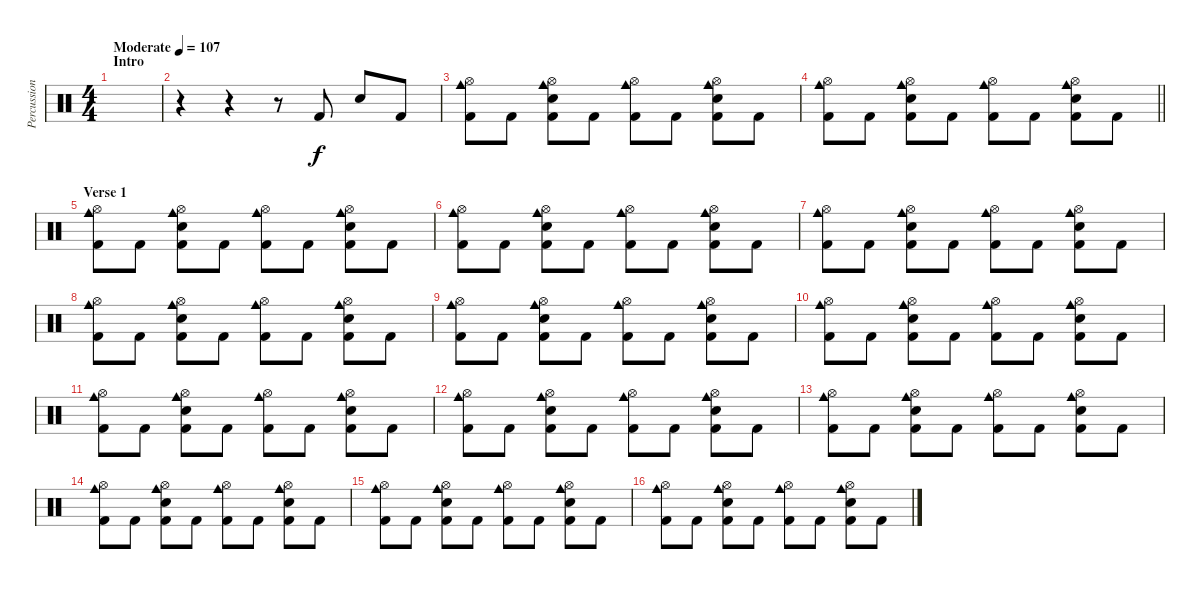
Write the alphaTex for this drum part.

\track ("Percussion" "Percussion") {instrument percussion}
\staff {score}
\articulation defaults
\ts (4 4)
\section ("" "Intro")
\tempo (107 "Moderate")
\clef neutral
\ks c
|
r.4 r.4 r.8 "Kick (hit) 2".8 "Snare (hit) 2".8 "Kick (hit) 2".8 |
("Cowbell medium (hit)" "Hi-Hat (open)" "Kick (hit) 2").8 "Kick (hit) 2".8 ("Cowbell medium (hit)" "Hi-Hat (open)" "Snare (hit) 2" "Kick (hit) 2").8 "Kick (hit) 2".8 ("Cowbell medium (hit)" "Hi-Hat (open)" "Kick (hit) 2").8 "Kick (hit) 2".8 ("Cowbell medium (hit)" "Hi-Hat (open)" "Snare (hit) 2" "Kick (hit) 2").8 "Kick (hit) 2".8 |
\barLineRight lightlight
("Cowbell medium (hit)" "Hi-Hat (open)" "Kick (hit) 2").8 "Kick (hit) 2".8 ("Cowbell medium (hit)" "Hi-Hat (open)" "Snare (hit) 2" "Kick (hit) 2").8 "Kick (hit) 2".8 ("Cowbell medium (hit)" "Hi-Hat (open)" "Kick (hit) 2").8 "Kick (hit) 2".8 ("Cowbell medium (hit)" "Hi-Hat (open)" "Snare (hit) 2" "Kick (hit) 2").8 "Kick (hit) 2".8 |
\section ("" "Verse 1")
("Cowbell medium (hit)" "Hi-Hat (open)" "Kick (hit) 2").8 "Kick (hit) 2".8 ("Cowbell medium (hit)" "Hi-Hat (open)" "Snare (hit) 2" "Kick (hit) 2").8 "Kick (hit) 2".8 ("Cowbell medium (hit)" "Hi-Hat (open)" "Kick (hit) 2").8 "Kick (hit) 2".8 ("Cowbell medium (hit)" "Hi-Hat (open)" "Snare (hit) 2" "Kick (hit) 2").8 "Kick (hit) 2".8 |
("Cowbell medium (hit)" "Hi-Hat (open)" "Kick (hit) 2").8 "Kick (hit) 2".8 ("Cowbell medium (hit)" "Hi-Hat (open)" "Snare (hit) 2" "Kick (hit) 2").8 "Kick (hit) 2".8 ("Cowbell medium (hit)" "Hi-Hat (open)" "Kick (hit) 2").8 "Kick (hit) 2".8 ("Cowbell medium (hit)" "Hi-Hat (open)" "Snare (hit) 2" "Kick (hit) 2").8 "Kick (hit) 2".8 |
("Cowbell medium (hit)" "Hi-Hat (open)" "Kick (hit) 2").8 "Kick (hit) 2".8 ("Cowbell medium (hit)" "Hi-Hat (open)" "Snare (hit) 2" "Kick (hit) 2").8 "Kick (hit) 2".8 ("Cowbell medium (hit)" "Hi-Hat (open)" "Kick (hit) 2").8 "Kick (hit) 2".8 ("Cowbell medium (hit)" "Hi-Hat (open)" "Snare (hit) 2" "Kick (hit) 2").8 "Kick (hit) 2".8 |
("Cowbell medium (hit)" "Hi-Hat (open)" "Kick (hit) 2").8 "Kick (hit) 2".8 ("Cowbell medium (hit)" "Hi-Hat (open)" "Snare (hit) 2" "Kick (hit) 2").8 "Kick (hit) 2".8 ("Cowbell medium (hit)" "Hi-Hat (open)" "Kick (hit) 2").8 "Kick (hit) 2".8 ("Cowbell medium (hit)" "Hi-Hat (open)" "Snare (hit) 2" "Kick (hit) 2").8 "Kick (hit) 2".8 |
("Cowbell medium (hit)" "Hi-Hat (open)" "Kick (hit) 2").8 "Kick (hit) 2".8 ("Cowbell medium (hit)" "Hi-Hat (open)" "Snare (hit) 2" "Kick (hit) 2").8 "Kick (hit) 2".8 ("Cowbell medium (hit)" "Hi-Hat (open)" "Kick (hit) 2").8 "Kick (hit) 2".8 ("Cowbell medium (hit)" "Hi-Hat (open)" "Snare (hit) 2" "Kick (hit) 2").8 "Kick (hit) 2".8 |
("Cowbell medium (hit)" "Hi-Hat (open)" "Kick (hit) 2").8 "Kick (hit) 2".8 ("Cowbell medium (hit)" "Hi-Hat (open)" "Snare (hit) 2" "Kick (hit) 2").8 "Kick (hit) 2".8 ("Cowbell medium (hit)" "Hi-Hat (open)" "Kick (hit) 2").8 "Kick (hit) 2".8 ("Cowbell medium (hit)" "Hi-Hat (open)" "Snare (hit) 2" "Kick (hit) 2").8 "Kick (hit) 2".8 |
("Cowbell medium (hit)" "Hi-Hat (open)" "Kick (hit) 2").8 "Kick (hit) 2".8 ("Cowbell medium (hit)" "Hi-Hat (open)" "Snare (hit) 2" "Kick (hit) 2").8 "Kick (hit) 2".8 ("Cowbell medium (hit)" "Hi-Hat (open)" "Kick (hit) 2").8 "Kick (hit) 2".8 ("Cowbell medium (hit)" "Hi-Hat (open)" "Snare (hit) 2" "Kick (hit) 2").8 "Kick (hit) 2".8 |
("Cowbell medium (hit)" "Hi-Hat (open)" "Kick (hit) 2").8 "Kick (hit) 2".8 ("Cowbell medium (hit)" "Hi-Hat (open)" "Snare (hit) 2" "Kick (hit) 2").8 "Kick (hit) 2".8 ("Cowbell medium (hit)" "Hi-Hat (open)" "Kick (hit) 2").8 "Kick (hit) 2".8 ("Cowbell medium (hit)" "Hi-Hat (open)" "Snare (hit) 2" "Kick (hit) 2").8 "Kick (hit) 2".8 |
("Cowbell medium (hit)" "Hi-Hat (open)" "Kick (hit) 2").8 "Kick (hit) 2".8 ("Cowbell medium (hit)" "Hi-Hat (open)" "Snare (hit) 2" "Kick (hit) 2").8 "Kick (hit) 2".8 ("Cowbell medium (hit)" "Hi-Hat (open)" "Kick (hit) 2").8 "Kick (hit) 2".8 ("Cowbell medium (hit)" "Hi-Hat (open)" "Snare (hit) 2" "Kick (hit) 2").8 "Kick (hit) 2".8 |
("Cowbell medium (hit)" "Hi-Hat (open)" "Kick (hit) 2").8 "Kick (hit) 2".8 ("Cowbell medium (hit)" "Hi-Hat (open)" "Snare (hit) 2" "Kick (hit) 2").8 "Kick (hit) 2".8 ("Cowbell medium (hit)" "Hi-Hat (open)" "Kick (hit) 2").8 "Kick (hit) 2".8 ("Cowbell medium (hit)" "Hi-Hat (open)" "Snare (hit) 2" "Kick (hit) 2").8 "Kick (hit) 2".8 |
("Cowbell medium (hit)" "Hi-Hat (open)" "Kick (hit) 2").8 "Kick (hit) 2".8 ("Cowbell medium (hit)" "Hi-Hat (open)" "Snare (hit) 2" "Kick (hit) 2").8 "Kick (hit) 2".8 ("Cowbell medium (hit)" "Hi-Hat (open)" "Kick (hit) 2").8 "Kick (hit) 2".8 ("Cowbell medium (hit)" "Hi-Hat (open)" "Snare (hit) 2" "Kick (hit) 2").8 "Kick (hit) 2".8 |
("Cowbell medium (hit)" "Hi-Hat (open)" "Kick (hit) 2").8 "Kick (hit) 2".8 ("Cowbell medium (hit)" "Hi-Hat (open)" "Snare (hit) 2" "Kick (hit) 2").8 "Kick (hit) 2".8 ("Cowbell medium (hit)" "Hi-Hat (open)" "Kick (hit) 2").8 "Kick (hit) 2".8 ("Cowbell medium (hit)" "Hi-Hat (open)" "Snare (hit) 2" "Kick (hit) 2").8 "Kick (hit) 2".8
